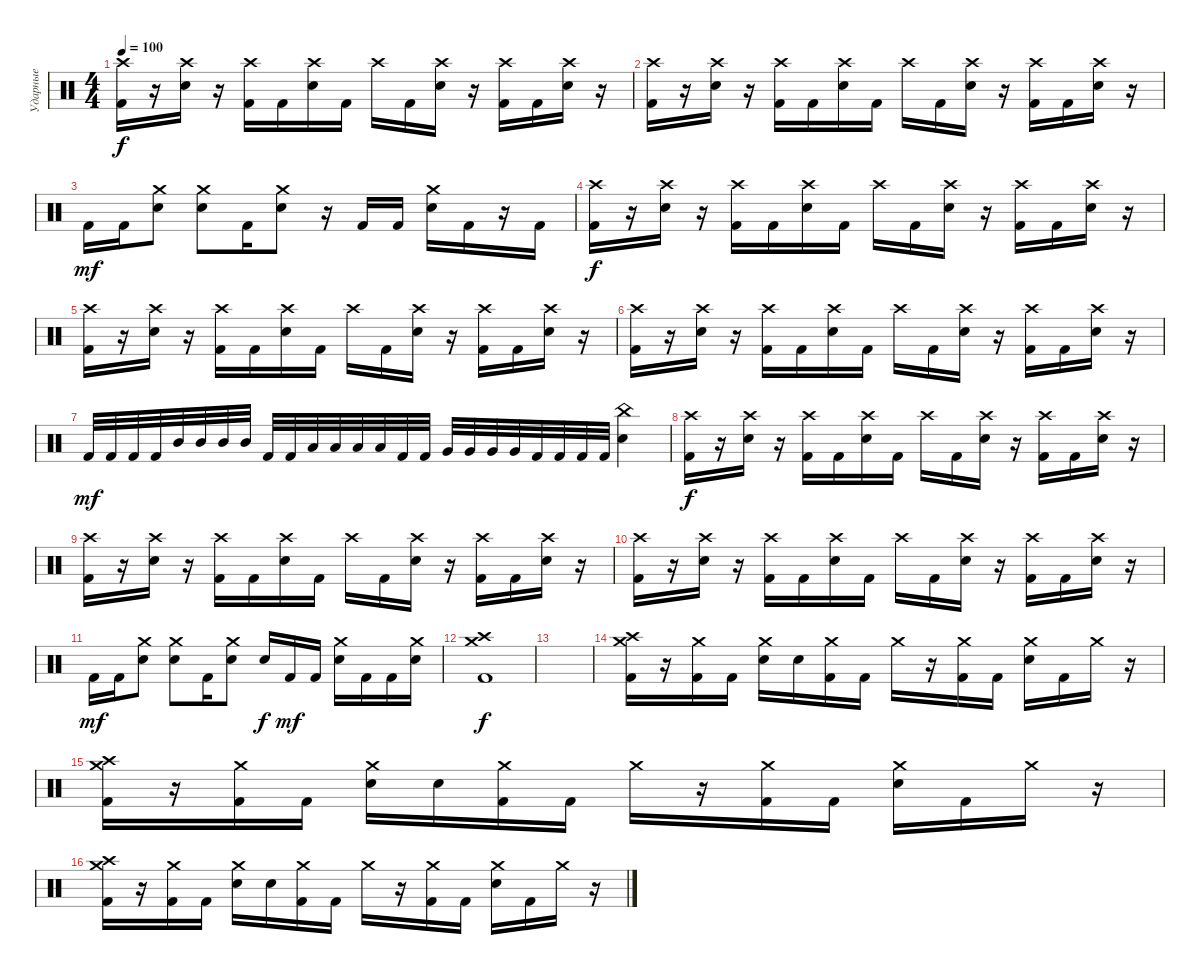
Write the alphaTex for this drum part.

\track ("Ударные" "Ударные") {instrument percussion}
\staff {score}
\articulation defaults
\ts (4 4)
\tempo 100
\clef neutral
\ks c
("Crash high (hit)" "Kick (hit) 2").16{dy f} r.16 ("Crash high (hit)" "Electric Snare (hit)").16 r.16 ("Crash high (hit)" "Kick (hit) 2").16 "Kick (hit) 2".16 ("Crash high (hit)" "Electric Snare (hit)").16 "Kick (hit) 2".16 "Crash high (hit)".16 "Kick (hit) 2".16 ("Crash high (hit)" "Electric Snare (hit)").16 r.16 ("Crash high (hit)" "Kick (hit) 2").16 "Kick (hit) 2".16 ("Crash high (hit)" "Electric Snare (hit)").16 r.16 |
("Crash high (hit)" "Kick (hit) 2").16 r.16 ("Crash high (hit)" "Electric Snare (hit)").16 r.16 ("Crash high (hit)" "Kick (hit) 2").16 "Kick (hit) 2".16 ("Crash high (hit)" "Electric Snare (hit)").16 "Kick (hit) 2".16 "Crash high (hit)".16 "Kick (hit) 2".16 ("Crash high (hit)" "Electric Snare (hit)").16 r.16 ("Crash high (hit)" "Kick (hit) 2").16 "Kick (hit) 2".16 ("Crash high (hit)" "Electric Snare (hit)").16 r.16 |
"Kick (hit) 2".16{dy mf} "Kick (hit) 2".16 ("Crash medium (hit)" "Electric Snare (hit)").8 ("Crash medium (hit)" "Electric Snare (hit)").8 "Kick (hit) 2".16 ("Crash medium (hit)" "Electric Snare (hit)").8 r.16 "Kick (hit) 2".16 "Kick (hit) 2".16 ("Crash medium (hit)" "Electric Snare (hit)").16 "Kick (hit) 2".16 r.16 "Kick (hit) 2".16 |
("Crash high (hit)" "Kick (hit) 2").16{dy f} r.16 ("Crash high (hit)" "Electric Snare (hit)").16 r.16 ("Crash high (hit)" "Kick (hit) 2").16 "Kick (hit) 2".16 ("Crash high (hit)" "Electric Snare (hit)").16 "Kick (hit) 2".16 "Crash high (hit)".16 "Kick (hit) 2".16 ("Crash high (hit)" "Electric Snare (hit)").16 r.16 ("Crash high (hit)" "Kick (hit) 2").16 "Kick (hit) 2".16 ("Crash high (hit)" "Electric Snare (hit)").16 r.16 |
("Crash high (hit)" "Kick (hit) 2").16 r.16 ("Crash high (hit)" "Electric Snare (hit)").16 r.16 ("Crash high (hit)" "Kick (hit) 2").16 "Kick (hit) 2".16 ("Crash high (hit)" "Electric Snare (hit)").16 "Kick (hit) 2".16 "Crash high (hit)".16 "Kick (hit) 2".16 ("Crash high (hit)" "Electric Snare (hit)").16 r.16 ("Crash high (hit)" "Kick (hit) 2").16 "Kick (hit) 2".16 ("Crash high (hit)" "Electric Snare (hit)").16 r.16 |
("Crash high (hit)" "Kick (hit) 2").16 r.16 ("Crash high (hit)" "Electric Snare (hit)").16 r.16 ("Crash high (hit)" "Kick (hit) 2").16 "Kick (hit) 2".16 ("Crash high (hit)" "Electric Snare (hit)").16 "Kick (hit) 2".16 "Crash high (hit)".16 "Kick (hit) 2".16 ("Crash high (hit)" "Electric Snare (hit)").16 r.16 ("Crash high (hit)" "Kick (hit) 2").16 "Kick (hit) 2".16 ("Crash high (hit)" "Electric Snare (hit)").16 r.16 |
"Kick (hit) 2".32{dy mf} "Kick (hit) 2".32 "Kick (hit) 2".32 "Kick (hit) 2".32 "Mid Tom (hit)".32 "Mid Tom (hit)".32 "Mid Tom (hit)".32 "Mid Tom (hit)".32 "Kick (hit) 2".32 "Kick (hit) 2".32 "Low Tom (hit)".32 "Low Tom (hit)".32 "Low Tom (hit)".32 "Low Tom (hit)".32 "Kick (hit) 2".32 "Kick (hit) 2".32 "Very Low Tom (hit)".32 "Very Low Tom (hit)".32 "Very Low Tom (hit)".32 "Very Low Tom (hit)".32 "Kick (hit) 2".32 "Kick (hit) 2".32 "Kick (hit) 2".32 "Kick (hit) 2".32 ("China (hit)" "Electric Snare (hit)").4 |
("Crash high (hit)" "Kick (hit) 2").16{dy f} r.16 ("Crash high (hit)" "Electric Snare (hit)").16 r.16 ("Crash high (hit)" "Kick (hit) 2").16 "Kick (hit) 2".16 ("Crash high (hit)" "Electric Snare (hit)").16 "Kick (hit) 2".16 "Crash high (hit)".16 "Kick (hit) 2".16 ("Crash high (hit)" "Electric Snare (hit)").16 r.16 ("Crash high (hit)" "Kick (hit) 2").16 "Kick (hit) 2".16 ("Crash high (hit)" "Electric Snare (hit)").16 r.16 |
("Crash high (hit)" "Kick (hit) 2").16 r.16 ("Crash high (hit)" "Electric Snare (hit)").16 r.16 ("Crash high (hit)" "Kick (hit) 2").16 "Kick (hit) 2".16 ("Crash high (hit)" "Electric Snare (hit)").16 "Kick (hit) 2".16 "Crash high (hit)".16 "Kick (hit) 2".16 ("Crash high (hit)" "Electric Snare (hit)").16 r.16 ("Crash high (hit)" "Kick (hit) 2").16 "Kick (hit) 2".16 ("Crash high (hit)" "Electric Snare (hit)").16 r.16 |
("Crash high (hit)" "Kick (hit) 2").16 r.16 ("Crash high (hit)" "Electric Snare (hit)").16 r.16 ("Crash high (hit)" "Kick (hit) 2").16 "Kick (hit) 2".16 ("Crash high (hit)" "Electric Snare (hit)").16 "Kick (hit) 2".16 "Crash high (hit)".16 "Kick (hit) 2".16 ("Crash high (hit)" "Electric Snare (hit)").16 r.16 ("Crash high (hit)" "Kick (hit) 2").16 "Kick (hit) 2".16 ("Crash high (hit)" "Electric Snare (hit)").16 r.16 |
"Kick (hit) 2".16{dy mf} "Kick (hit) 2".16 ("Crash medium (hit)" "Electric Snare (hit)").8 ("Crash medium (hit)" "Electric Snare (hit)").8 "Kick (hit) 2".16 ("Crash medium (hit)" "Electric Snare (hit)").8 "Electric Snare (hit)".16{dy f} "Kick (hit) 2".16{dy mf} "Kick (hit) 2".16 ("Crash medium (hit)" "Electric Snare (hit)").16 "Kick (hit) 2".16 "Kick (hit) 2".16 ("Crash medium (hit)" "Electric Snare (hit)").16 |
("Crash high (hit)" "Crash medium (hit)" "Kick (hit) 2").1{dy f} |
|
("Crash high (hit)" "Crash medium (hit)" "Kick (hit) 2").16 r.16 ("Crash medium (hit)" "Kick (hit) 2").16 "Kick (hit) 2".16 ("Crash medium (hit)" "Electric Snare (hit)").16 "Electric Snare (hit)".16 ("Crash medium (hit)" "Kick (hit) 2").16 "Kick (hit) 2".16 "Crash medium (hit)".16 r.16 ("Crash medium (hit)" "Kick (hit) 2").16 "Kick (hit) 2".16 ("Crash medium (hit)" "Electric Snare (hit)").16 "Kick (hit) 2".16 "Crash medium (hit)".16 r.16 |
("Crash high (hit)" "Crash medium (hit)" "Kick (hit) 2").16 r.16 ("Crash medium (hit)" "Kick (hit) 2").16 "Kick (hit) 2".16 ("Crash medium (hit)" "Electric Snare (hit)").16 "Electric Snare (hit)".16 ("Crash medium (hit)" "Kick (hit) 2").16 "Kick (hit) 2".16 "Crash medium (hit)".16 r.16 ("Crash medium (hit)" "Kick (hit) 2").16 "Kick (hit) 2".16 ("Crash medium (hit)" "Electric Snare (hit)").16 "Kick (hit) 2".16 "Crash medium (hit)".16 r.16 |
("Crash high (hit)" "Crash medium (hit)" "Kick (hit) 2").16 r.16 ("Crash medium (hit)" "Kick (hit) 2").16 "Kick (hit) 2".16 ("Crash medium (hit)" "Electric Snare (hit)").16 "Electric Snare (hit)".16 ("Crash medium (hit)" "Kick (hit) 2").16 "Kick (hit) 2".16 "Crash medium (hit)".16 r.16 ("Crash medium (hit)" "Kick (hit) 2").16 "Kick (hit) 2".16 ("Crash medium (hit)" "Electric Snare (hit)").16 "Kick (hit) 2".16 "Crash medium (hit)".16 r.16
